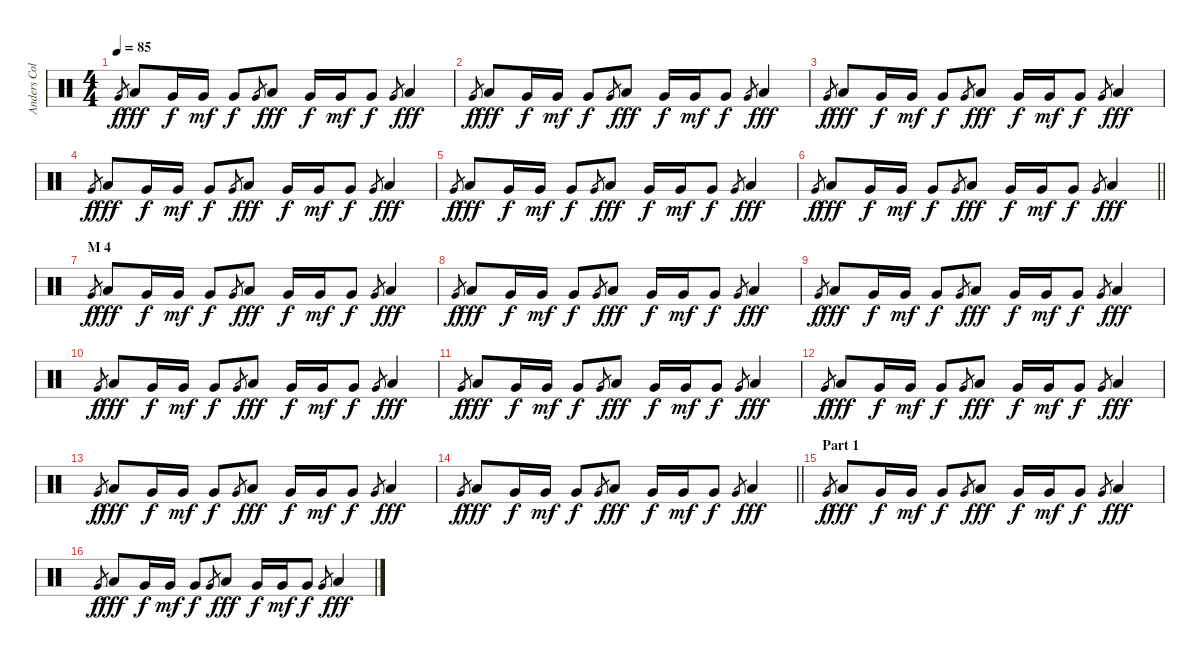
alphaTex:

\track ("Anders Colsefni" "Anders Col") {instrument percussion}
\staff {score}
\articulation defaults
\ts (4 4)
\tempo 85
\clef neutral
\ks c "Very Low Tom (hit)".8{gr dy f} "Low Tom (hit)".8{dy fff} "Very Low Tom (hit)".16{dy f} "Very Low Tom (hit)".16{dy mf} "Very Low Tom (hit)".8{dy f} "Very Low Tom (hit)".8{gr} "Low Tom (hit)".8{dy fff} "Very Low Tom (hit)".16{dy f} "Very Low Tom (hit)".16{dy mf} "Very Low Tom (hit)".8{dy f} "Very Low Tom (hit)".8{gr} "Low Tom (hit)".4{dy fff}
|
"Very Low Tom (hit)".8{gr dy f} "Low Tom (hit)".8{dy fff} "Very Low Tom (hit)".16{dy f} "Very Low Tom (hit)".16{dy mf} "Very Low Tom (hit)".8{dy f} "Very Low Tom (hit)".8{gr} "Low Tom (hit)".8{dy fff} "Very Low Tom (hit)".16{dy f} "Very Low Tom (hit)".16{dy mf} "Very Low Tom (hit)".8{dy f} "Very Low Tom (hit)".8{gr} "Low Tom (hit)".4{dy fff} |
"Very Low Tom (hit)".8{gr dy f} "Low Tom (hit)".8{dy fff} "Very Low Tom (hit)".16{dy f} "Very Low Tom (hit)".16{dy mf} "Very Low Tom (hit)".8{dy f} "Very Low Tom (hit)".8{gr} "Low Tom (hit)".8{dy fff} "Very Low Tom (hit)".16{dy f} "Very Low Tom (hit)".16{dy mf} "Very Low Tom (hit)".8{dy f} "Very Low Tom (hit)".8{gr} "Low Tom (hit)".4{dy fff} |
"Very Low Tom (hit)".8{gr dy f} "Low Tom (hit)".8{dy fff} "Very Low Tom (hit)".16{dy f} "Very Low Tom (hit)".16{dy mf} "Very Low Tom (hit)".8{dy f} "Very Low Tom (hit)".8{gr} "Low Tom (hit)".8{dy fff} "Very Low Tom (hit)".16{dy f} "Very Low Tom (hit)".16{dy mf} "Very Low Tom (hit)".8{dy f} "Very Low Tom (hit)".8{gr} "Low Tom (hit)".4{dy fff} |
"Very Low Tom (hit)".8{gr dy f} "Low Tom (hit)".8{dy fff} "Very Low Tom (hit)".16{dy f} "Very Low Tom (hit)".16{dy mf} "Very Low Tom (hit)".8{dy f} "Very Low Tom (hit)".8{gr} "Low Tom (hit)".8{dy fff} "Very Low Tom (hit)".16{dy f} "Very Low Tom (hit)".16{dy mf} "Very Low Tom (hit)".8{dy f} "Very Low Tom (hit)".8{gr} "Low Tom (hit)".4{dy fff} |
\barLineRight lightlight "Very Low Tom (hit)".8{gr dy f} "Low Tom (hit)".8{dy fff} "Very Low Tom (hit)".16{dy f} "Very Low Tom (hit)".16{dy mf} "Very Low Tom (hit)".8{dy f} "Very Low Tom (hit)".8{gr} "Low Tom (hit)".8{dy fff} "Very Low Tom (hit)".16{dy f} "Very Low Tom (hit)".16{dy mf} "Very Low Tom (hit)".8{dy f} "Very Low Tom (hit)".8{gr} "Low Tom (hit)".4{dy fff}
|
\section ("" "M 4")
"Very Low Tom (hit)".8{gr dy f} "Low Tom (hit)".8{dy fff} "Very Low Tom (hit)".16{dy f} "Very Low Tom (hit)".16{dy mf} "Very Low Tom (hit)".8{dy f} "Very Low Tom (hit)".8{gr} "Low Tom (hit)".8{dy fff} "Very Low Tom (hit)".16{dy f} "Very Low Tom (hit)".16{dy mf} "Very Low Tom (hit)".8{dy f} "Very Low Tom (hit)".8{gr} "Low Tom (hit)".4{dy fff} |
"Very Low Tom (hit)".8{gr dy f} "Low Tom (hit)".8{dy fff} "Very Low Tom (hit)".16{dy f} "Very Low Tom (hit)".16{dy mf} "Very Low Tom (hit)".8{dy f} "Very Low Tom (hit)".8{gr} "Low Tom (hit)".8{dy fff} "Very Low Tom (hit)".16{dy f} "Very Low Tom (hit)".16{dy mf} "Very Low Tom (hit)".8{dy f} "Very Low Tom (hit)".8{gr} "Low Tom (hit)".4{dy fff} |
"Very Low Tom (hit)".8{gr dy f} "Low Tom (hit)".8{dy fff} "Very Low Tom (hit)".16{dy f} "Very Low Tom (hit)".16{dy mf} "Very Low Tom (hit)".8{dy f} "Very Low Tom (hit)".8{gr} "Low Tom (hit)".8{dy fff} "Very Low Tom (hit)".16{dy f} "Very Low Tom (hit)".16{dy mf} "Very Low Tom (hit)".8{dy f} "Very Low Tom (hit)".8{gr} "Low Tom (hit)".4{dy fff} |
"Very Low Tom (hit)".8{gr dy f} "Low Tom (hit)".8{dy fff} "Very Low Tom (hit)".16{dy f} "Very Low Tom (hit)".16{dy mf} "Very Low Tom (hit)".8{dy f} "Very Low Tom (hit)".8{gr} "Low Tom (hit)".8{dy fff} "Very Low Tom (hit)".16{dy f} "Very Low Tom (hit)".16{dy mf} "Very Low Tom (hit)".8{dy f} "Very Low Tom (hit)".8{gr} "Low Tom (hit)".4{dy fff} |
"Very Low Tom (hit)".8{gr dy f} "Low Tom (hit)".8{dy fff} "Very Low Tom (hit)".16{dy f} "Very Low Tom (hit)".16{dy mf} "Very Low Tom (hit)".8{dy f} "Very Low Tom (hit)".8{gr} "Low Tom (hit)".8{dy fff} "Very Low Tom (hit)".16{dy f} "Very Low Tom (hit)".16{dy mf} "Very Low Tom (hit)".8{dy f} "Very Low Tom (hit)".8{gr} "Low Tom (hit)".4{dy fff} |
"Very Low Tom (hit)".8{gr dy f} "Low Tom (hit)".8{dy fff} "Very Low Tom (hit)".16{dy f} "Very Low Tom (hit)".16{dy mf} "Very Low Tom (hit)".8{dy f} "Very Low Tom (hit)".8{gr} "Low Tom (hit)".8{dy fff} "Very Low Tom (hit)".16{dy f} "Very Low Tom (hit)".16{dy mf} "Very Low Tom (hit)".8{dy f} "Very Low Tom (hit)".8{gr} "Low Tom (hit)".4{dy fff} |
"Very Low Tom (hit)".8{gr dy f} "Low Tom (hit)".8{dy fff} "Very Low Tom (hit)".16{dy f} "Very Low Tom (hit)".16{dy mf} "Very Low Tom (hit)".8{dy f} "Very Low Tom (hit)".8{gr} "Low Tom (hit)".8{dy fff} "Very Low Tom (hit)".16{dy f} "Very Low Tom (hit)".16{dy mf} "Very Low Tom (hit)".8{dy f} "Very Low Tom (hit)".8{gr} "Low Tom (hit)".4{dy fff} |
\barLineRight lightlight "Very Low Tom (hit)".8{gr dy f} "Low Tom (hit)".8{dy fff} "Very Low Tom (hit)".16{dy f} "Very Low Tom (hit)".16{dy mf} "Very Low Tom (hit)".8{dy f} "Very Low Tom (hit)".8{gr} "Low Tom (hit)".8{dy fff} "Very Low Tom (hit)".16{dy f} "Very Low Tom (hit)".16{dy mf} "Very Low Tom (hit)".8{dy f} "Very Low Tom (hit)".8{gr} "Low Tom (hit)".4{dy fff}
|
\section ("" "Part 1")
"Very Low Tom (hit)".8{gr dy f} "Low Tom (hit)".8{dy fff} "Very Low Tom (hit)".16{dy f} "Very Low Tom (hit)".16{dy mf} "Very Low Tom (hit)".8{dy f} "Very Low Tom (hit)".8{gr} "Low Tom (hit)".8{dy fff} "Very Low Tom (hit)".16{dy f} "Very Low Tom (hit)".16{dy mf} "Very Low Tom (hit)".8{dy f} "Very Low Tom (hit)".8{gr} "Low Tom (hit)".4{dy fff} |
"Very Low Tom (hit)".8{gr dy f} "Low Tom (hit)".8{dy fff} "Very Low Tom (hit)".16{dy f} "Very Low Tom (hit)".16{dy mf} "Very Low Tom (hit)".8{dy f} "Very Low Tom (hit)".8{gr} "Low Tom (hit)".8{dy fff} "Very Low Tom (hit)".16{dy f} "Very Low Tom (hit)".16{dy mf} "Very Low Tom (hit)".8{dy f} "Very Low Tom (hit)".8{gr} "Low Tom (hit)".4{dy fff}
